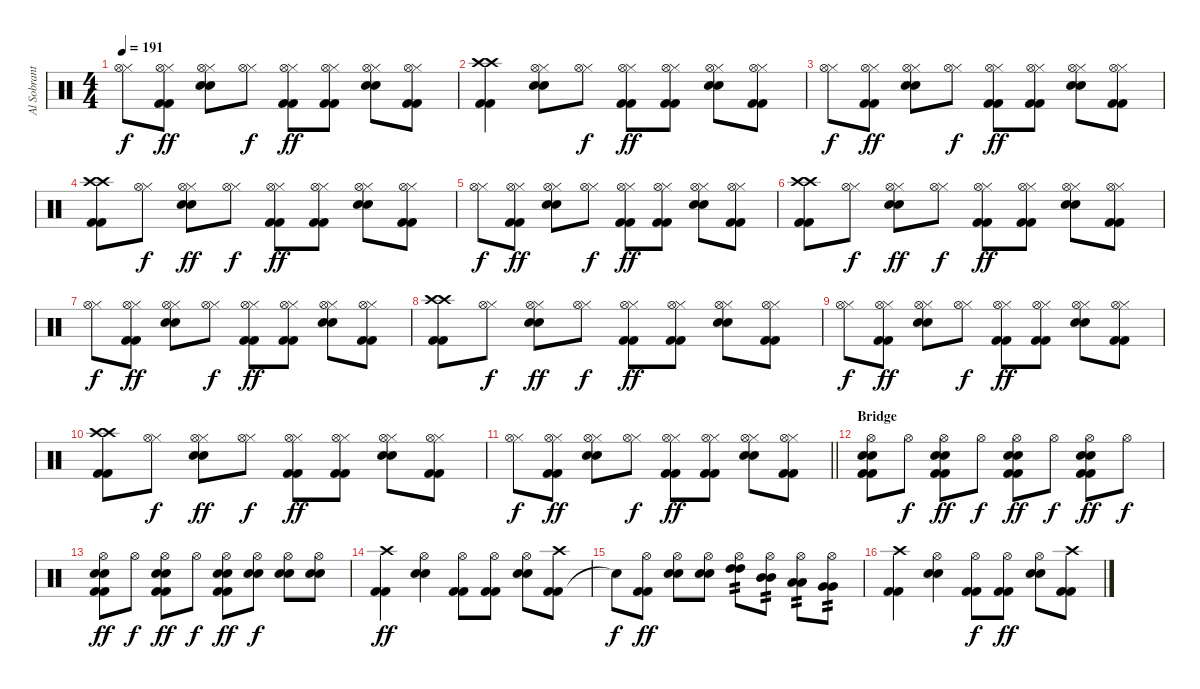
\track ("Al Sobrante (Drums)" "Al Sobrant") {instrument percussion}
\staff {score}
\articulation defaults
\ts (4 4)
\tempo 191
\clef neutral
\ks c
("Hi-Hat (closed)" "Hi-Hat (open)").8{dy f} ("Kick (hit) 2" "Kick (hit) 2" "Hi-Hat (closed)" "Hi-Hat (open)").8{dy ff} ("Electric Snare (hit)" "Electric Snare (hit)" "Hi-Hat (closed)" "Hi-Hat (open)").8 ("Hi-Hat (closed)" "Hi-Hat (open)").8{dy f} ("Kick (hit) 2" "Kick (hit) 2" "Hi-Hat (closed)" "Hi-Hat (open)").8{dy ff} ("Kick (hit) 2" "Kick (hit) 2" "Hi-Hat (closed)" "Hi-Hat (open)").8 ("Electric Snare (hit)" "Electric Snare (hit)" "Hi-Hat (closed)" "Hi-Hat (open)").8 ("Kick (hit) 2" "Kick (hit) 2" "Hi-Hat (closed)" "Hi-Hat (open)").8 |
("Kick (hit) 2" "Kick (hit) 2" "Crash high (hit)" "Crash high (hit)").4 ("Electric Snare (hit)" "Electric Snare (hit)" "Hi-Hat (closed)" "Hi-Hat (open)").8 ("Hi-Hat (closed)" "Hi-Hat (open)").8{dy f} ("Kick (hit) 2" "Kick (hit) 2" "Hi-Hat (closed)" "Hi-Hat (open)").8{dy ff} ("Kick (hit) 2" "Kick (hit) 2" "Hi-Hat (closed)" "Hi-Hat (open)").8 ("Electric Snare (hit)" "Electric Snare (hit)" "Hi-Hat (closed)" "Hi-Hat (open)").8 ("Kick (hit) 2" "Kick (hit) 2" "Hi-Hat (closed)" "Hi-Hat (open)").8 |
("Hi-Hat (closed)" "Hi-Hat (open)").8{dy f} ("Kick (hit) 2" "Kick (hit) 2" "Hi-Hat (closed)" "Hi-Hat (open)").8{dy ff} ("Electric Snare (hit)" "Electric Snare (hit)" "Hi-Hat (closed)" "Hi-Hat (open)").8 ("Hi-Hat (closed)" "Hi-Hat (open)").8{dy f} ("Kick (hit) 2" "Kick (hit) 2" "Hi-Hat (closed)" "Hi-Hat (open)").8{dy ff} ("Kick (hit) 2" "Kick (hit) 2" "Hi-Hat (closed)" "Hi-Hat (open)").8 ("Electric Snare (hit)" "Electric Snare (hit)" "Hi-Hat (closed)" "Hi-Hat (open)").8 ("Kick (hit) 2" "Kick (hit) 2" "Hi-Hat (closed)" "Hi-Hat (open)").8 |
("Kick (hit) 2" "Kick (hit) 2" "Crash high (hit)" "Crash high (hit)").8 ("Hi-Hat (closed)" "Hi-Hat (open)").8{dy f} ("Electric Snare (hit)" "Electric Snare (hit)" "Hi-Hat (closed)" "Hi-Hat (open)").8{dy ff} ("Hi-Hat (closed)" "Hi-Hat (open)").8{dy f} ("Kick (hit) 2" "Kick (hit) 2" "Hi-Hat (closed)" "Hi-Hat (open)").8{dy ff} ("Kick (hit) 2" "Kick (hit) 2" "Hi-Hat (closed)" "Hi-Hat (open)").8 ("Electric Snare (hit)" "Electric Snare (hit)" "Hi-Hat (closed)" "Hi-Hat (open)").8 ("Kick (hit) 2" "Kick (hit) 2" "Hi-Hat (closed)" "Hi-Hat (open)").8 |
("Hi-Hat (closed)" "Hi-Hat (open)").8{dy f} ("Kick (hit) 2" "Kick (hit) 2" "Hi-Hat (closed)" "Hi-Hat (open)").8{dy ff} ("Electric Snare (hit)" "Electric Snare (hit)" "Hi-Hat (closed)" "Hi-Hat (open)").8 ("Hi-Hat (closed)" "Hi-Hat (open)").8{dy f} ("Kick (hit) 2" "Kick (hit) 2" "Hi-Hat (closed)" "Hi-Hat (open)").8{dy ff} ("Kick (hit) 2" "Kick (hit) 2" "Hi-Hat (closed)" "Hi-Hat (open)").8 ("Electric Snare (hit)" "Electric Snare (hit)" "Hi-Hat (closed)" "Hi-Hat (open)").8 ("Kick (hit) 2" "Kick (hit) 2" "Hi-Hat (closed)" "Hi-Hat (open)").8 |
("Kick (hit) 2" "Kick (hit) 2" "Crash high (hit)" "Crash high (hit)").8 ("Hi-Hat (closed)" "Hi-Hat (open)").8{dy f} ("Electric Snare (hit)" "Electric Snare (hit)" "Hi-Hat (closed)" "Hi-Hat (open)").8{dy ff} ("Hi-Hat (closed)" "Hi-Hat (open)").8{dy f} ("Kick (hit) 2" "Kick (hit) 2" "Hi-Hat (closed)" "Hi-Hat (open)").8{dy ff} ("Kick (hit) 2" "Kick (hit) 2" "Hi-Hat (closed)" "Hi-Hat (open)").8 ("Electric Snare (hit)" "Electric Snare (hit)" "Hi-Hat (closed)" "Hi-Hat (open)").8 ("Kick (hit) 2" "Kick (hit) 2" "Hi-Hat (closed)" "Hi-Hat (open)").8 |
("Hi-Hat (closed)" "Hi-Hat (open)").8{dy f} ("Kick (hit) 2" "Kick (hit) 2" "Hi-Hat (closed)" "Hi-Hat (open)").8{dy ff} ("Electric Snare (hit)" "Electric Snare (hit)" "Hi-Hat (closed)" "Hi-Hat (open)").8 ("Hi-Hat (closed)" "Hi-Hat (open)").8{dy f} ("Kick (hit) 2" "Kick (hit) 2" "Hi-Hat (closed)" "Hi-Hat (open)").8{dy ff} ("Kick (hit) 2" "Kick (hit) 2" "Hi-Hat (closed)" "Hi-Hat (open)").8 ("Electric Snare (hit)" "Electric Snare (hit)" "Hi-Hat (closed)" "Hi-Hat (open)").8 ("Kick (hit) 2" "Kick (hit) 2" "Hi-Hat (closed)" "Hi-Hat (open)").8 |
("Kick (hit) 2" "Kick (hit) 2" "Crash high (hit)" "Crash high (hit)").8 ("Hi-Hat (closed)" "Hi-Hat (open)").8{dy f} ("Electric Snare (hit)" "Electric Snare (hit)" "Hi-Hat (closed)" "Hi-Hat (open)").8{dy ff} ("Hi-Hat (closed)" "Hi-Hat (open)").8{dy f} ("Kick (hit) 2" "Kick (hit) 2" "Hi-Hat (closed)" "Hi-Hat (open)").8{dy ff} ("Kick (hit) 2" "Kick (hit) 2" "Hi-Hat (closed)" "Hi-Hat (open)").8 ("Electric Snare (hit)" "Electric Snare (hit)" "Hi-Hat (closed)" "Hi-Hat (open)").8 ("Kick (hit) 2" "Kick (hit) 2" "Hi-Hat (closed)" "Hi-Hat (open)").8 |
("Hi-Hat (closed)" "Hi-Hat (open)").8{dy f} ("Kick (hit) 2" "Kick (hit) 2" "Hi-Hat (closed)" "Hi-Hat (open)").8{dy ff} ("Electric Snare (hit)" "Electric Snare (hit)" "Hi-Hat (closed)" "Hi-Hat (open)").8 ("Hi-Hat (closed)" "Hi-Hat (open)").8{dy f} ("Kick (hit) 2" "Kick (hit) 2" "Hi-Hat (closed)" "Hi-Hat (open)").8{dy ff} ("Kick (hit) 2" "Kick (hit) 2" "Hi-Hat (closed)" "Hi-Hat (open)").8 ("Electric Snare (hit)" "Electric Snare (hit)" "Hi-Hat (closed)" "Hi-Hat (open)").8 ("Kick (hit) 2" "Kick (hit) 2" "Hi-Hat (closed)" "Hi-Hat (open)").8 |
("Kick (hit) 2" "Kick (hit) 2" "Crash high (hit)" "Crash high (hit)").8 ("Hi-Hat (closed)" "Hi-Hat (open)").8{dy f} ("Electric Snare (hit)" "Electric Snare (hit)" "Hi-Hat (closed)" "Hi-Hat (open)").8{dy ff} ("Hi-Hat (closed)" "Hi-Hat (open)").8{dy f} ("Kick (hit) 2" "Kick (hit) 2" "Hi-Hat (closed)" "Hi-Hat (open)").8{dy ff} ("Kick (hit) 2" "Kick (hit) 2" "Hi-Hat (closed)" "Hi-Hat (open)").8 ("Electric Snare (hit)" "Electric Snare (hit)" "Hi-Hat (closed)" "Hi-Hat (open)").8 ("Kick (hit) 2" "Kick (hit) 2" "Hi-Hat (closed)" "Hi-Hat (open)").8 |
\barLineRight lightlight
("Hi-Hat (closed)" "Hi-Hat (open)").8{dy f} ("Kick (hit) 2" "Kick (hit) 2" "Hi-Hat (closed)" "Hi-Hat (open)").8{dy ff} ("Electric Snare (hit)" "Electric Snare (hit)" "Hi-Hat (closed)" "Hi-Hat (open)").8 ("Hi-Hat (closed)" "Hi-Hat (open)").8{dy f} ("Kick (hit) 2" "Kick (hit) 2" "Hi-Hat (closed)" "Hi-Hat (open)").8{dy ff} ("Kick (hit) 2" "Kick (hit) 2" "Hi-Hat (closed)" "Hi-Hat (open)").8 ("Electric Snare (hit)" "Electric Snare (hit)" "Hi-Hat (closed)" "Hi-Hat (open)").8 ("Kick (hit) 2" "Kick (hit) 2" "Hi-Hat (closed)" "Hi-Hat (open)").8 |
\section ("" "Bridge")
("Kick (hit) 2" "Kick (hit) 2" "Electric Snare (hit)" "Electric Snare (hit)" "Hi-Hat (open)").8 "Hi-Hat (open)".8{dy f} ("Kick (hit) 2" "Kick (hit) 2" "Electric Snare (hit)" "Electric Snare (hit)" "Hi-Hat (open)").8{dy ff} "Hi-Hat (open)".8{dy f} ("Kick (hit) 2" "Kick (hit) 2" "Electric Snare (hit)" "Electric Snare (hit)" "Hi-Hat (open)").8{dy ff} "Hi-Hat (open)".8{dy f} ("Kick (hit) 2" "Kick (hit) 2" "Electric Snare (hit)" "Electric Snare (hit)" "Hi-Hat (open)").8{dy ff} "Hi-Hat (open)".8{dy f} |
("Kick (hit) 2" "Kick (hit) 2" "Electric Snare (hit)" "Electric Snare (hit)" "Hi-Hat (open)").8{dy ff} "Hi-Hat (open)".8{dy f} ("Kick (hit) 2" "Kick (hit) 2" "Electric Snare (hit)" "Electric Snare (hit)" "Hi-Hat (open)").8{dy ff} "Hi-Hat (open)".8{dy f} ("Kick (hit) 2" "Kick (hit) 2" "Electric Snare (hit)" "Electric Snare (hit)" "Hi-Hat (open)").8{dy ff} ("Electric Snare (hit)" "Electric Snare (hit)" "Hi-Hat (open)").8{dy f} ("Electric Snare (hit)" "Electric Snare (hit)" "Hi-Hat (open)").8 ("Electric Snare (hit)" "Electric Snare (hit)" "Hi-Hat (open)").8 |
("Kick (hit) 2" "Kick (hit) 2" "Crash high (hit)").4{dy ff} ("Electric Snare (hit)" "Electric Snare (hit)" "Hi-Hat (open)").4 ("Kick (hit) 2" "Kick (hit) 2" "Hi-Hat (open)").8 ("Kick (hit) 2" "Kick (hit) 2" "Hi-Hat (open)").8 ("Electric Snare (hit)" "Electric Snare (hit)" "Hi-Hat (open)").8 ("Kick (hit) 2" "Kick (hit) 2" "Crash high (hit)").8 |
"Snare (hit)"{t}.8{dy f} ("Kick (hit) 2" "Kick (hit) 2" "Hi-Hat (open)").8{dy ff} ("Electric Snare (hit)" "Electric Snare (hit)" "Hi-Hat (open)").8 ("Electric Snare (hit)" "Electric Snare (hit)" "Hi-Hat (open)").8 ("High Tom (hit)" "High Tom (hit)" "Hi-Hat (open)").8{tp 2} ("Mid Tom (hit)" "Mid Tom (hit)" "Hi-Hat (open)").8{tp 2} ("Low Tom (hit)" "Low Tom (hit)" "Hi-Hat (open)").8{tp 2} ("Very Low Tom (hit)" "Very Low Tom (hit)" "Hi-Hat (open)").8{tp 2} |
("Kick (hit) 2" "Kick (hit) 2" "Crash high (hit)").4 ("Electric Snare (hit)" "Electric Snare (hit)" "Hi-Hat (open)").4 ("Kick (hit) 2" "Kick (hit) 2" "Hi-Hat (open)").8{dy f} ("Kick (hit) 2" "Kick (hit) 2" "Hi-Hat (open)").8{dy ff} ("Electric Snare (hit)" "Electric Snare (hit)" "Hi-Hat (open)").8 ("Kick (hit) 2" "Kick (hit) 2" "Crash high (hit)").8
